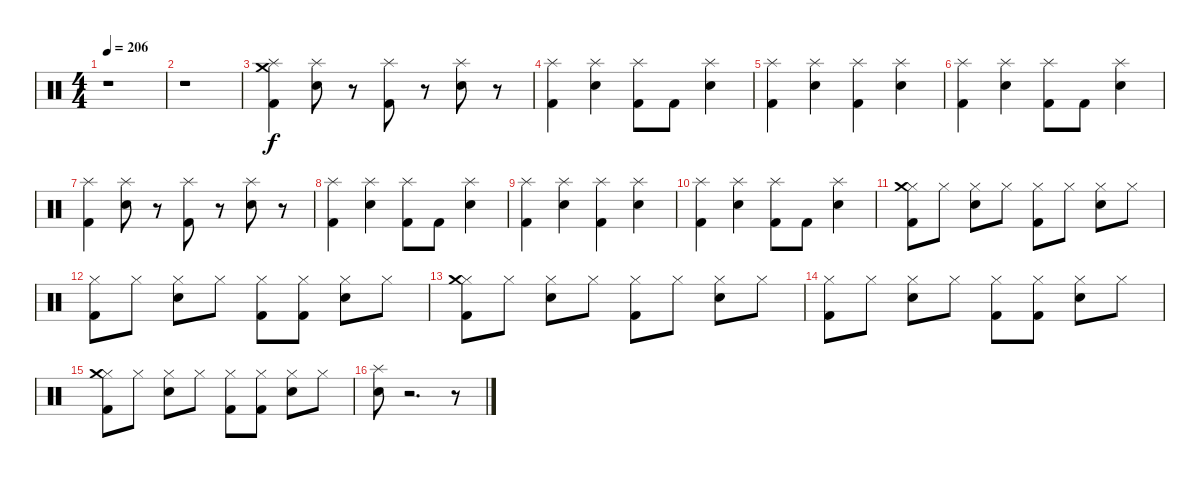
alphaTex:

\track "" {instrument percussion}
\staff {score}
\articulation defaults
\ts (4 4)
\tempo 206
\clef neutral
\ks c
r.1{dy f} |
r.1 |
("Splash (hit)" "Crash medium (hit)" "Kick (hit) 2").4 ("Splash (hit)" "Electric Snare (hit)").8 r.8 ("Splash (hit)" "Kick (hit) 2").8 r.8 ("Splash (hit)" "Electric Snare (hit)").8 r.8 |
("Splash (hit)" "Kick (hit) 2").4 ("Splash (hit)" "Electric Snare (hit)").4 ("Splash (hit)" "Kick (hit) 2").8 "Kick (hit) 2".8 ("Splash (hit)" "Electric Snare (hit)").4 |
("Splash (hit)" "Kick (hit) 2").4 ("Splash (hit)" "Electric Snare (hit)").4 ("Splash (hit)" "Kick (hit) 2").4 ("Splash (hit)" "Electric Snare (hit)").4 |
("Splash (hit)" "Kick (hit) 2").4 ("Splash (hit)" "Electric Snare (hit)").4 ("Splash (hit)" "Kick (hit) 2").8 "Kick (hit) 2".8 ("Splash (hit)" "Electric Snare (hit)").4 |
("Splash (hit)" "Kick (hit) 2").4 ("Splash (hit)" "Electric Snare (hit)").8 r.8 ("Splash (hit)" "Kick (hit) 2").8 r.8 ("Splash (hit)" "Electric Snare (hit)").8 r.8 |
("Splash (hit)" "Kick (hit) 2").4 ("Splash (hit)" "Electric Snare (hit)").4 ("Splash (hit)" "Kick (hit) 2").8 "Kick (hit) 2".8 ("Splash (hit)" "Electric Snare (hit)").4 |
("Splash (hit)" "Kick (hit) 2").4 ("Splash (hit)" "Electric Snare (hit)").4 ("Splash (hit)" "Kick (hit) 2").4 ("Splash (hit)" "Electric Snare (hit)").4 |
("Splash (hit)" "Kick (hit) 2").4 ("Splash (hit)" "Electric Snare (hit)").4 ("Splash (hit)" "Kick (hit) 2").8 "Kick (hit) 2".8 ("Splash (hit)" "Electric Snare (hit)").4 |
("Hi-Hat (closed)" "Crash medium (hit)" "Kick (hit) 2").8 "Hi-Hat (closed)".8 ("Hi-Hat (closed)" "Electric Snare (hit)").8 "Hi-Hat (closed)".8 ("Hi-Hat (closed)" "Kick (hit) 2").8 "Hi-Hat (closed)".8 ("Hi-Hat (closed)" "Electric Snare (hit)").8 "Hi-Hat (closed)".8 |
("Hi-Hat (closed)" "Kick (hit) 2").8 "Hi-Hat (closed)".8 ("Hi-Hat (closed)" "Electric Snare (hit)").8 "Hi-Hat (closed)".8 ("Hi-Hat (closed)" "Kick (hit) 2").8 ("Hi-Hat (closed)" "Kick (hit) 2").8 ("Hi-Hat (closed)" "Electric Snare (hit)").8 "Hi-Hat (closed)".8 |
("Hi-Hat (closed)" "Crash medium (hit)" "Kick (hit) 2").8 "Hi-Hat (closed)".8 ("Hi-Hat (closed)" "Electric Snare (hit)").8 "Hi-Hat (closed)".8 ("Hi-Hat (closed)" "Kick (hit) 2").8 "Hi-Hat (closed)".8 ("Hi-Hat (closed)" "Electric Snare (hit)").8 "Hi-Hat (closed)".8 |
("Hi-Hat (closed)" "Kick (hit) 2").8 "Hi-Hat (closed)".8 ("Hi-Hat (closed)" "Electric Snare (hit)").8 "Hi-Hat (closed)".8 ("Hi-Hat (closed)" "Kick (hit) 2").8 ("Hi-Hat (closed)" "Kick (hit) 2").8 ("Hi-Hat (closed)" "Electric Snare (hit)").8 "Hi-Hat (closed)".8 |
("Hi-Hat (closed)" "Crash medium (hit)" "Kick (hit) 2").8 "Hi-Hat (closed)".8 ("Hi-Hat (closed)" "Electric Snare (hit)").8 "Hi-Hat (closed)".8 ("Hi-Hat (closed)" "Kick (hit) 2").8 ("Kick (hit) 2" "Hi-Hat (closed)").8 ("Hi-Hat (closed)" "Electric Snare (hit)").8 "Hi-Hat (closed)".8 |
("Electric Snare (hit)" "Splash (hit)").8 r.2{d} r.8
